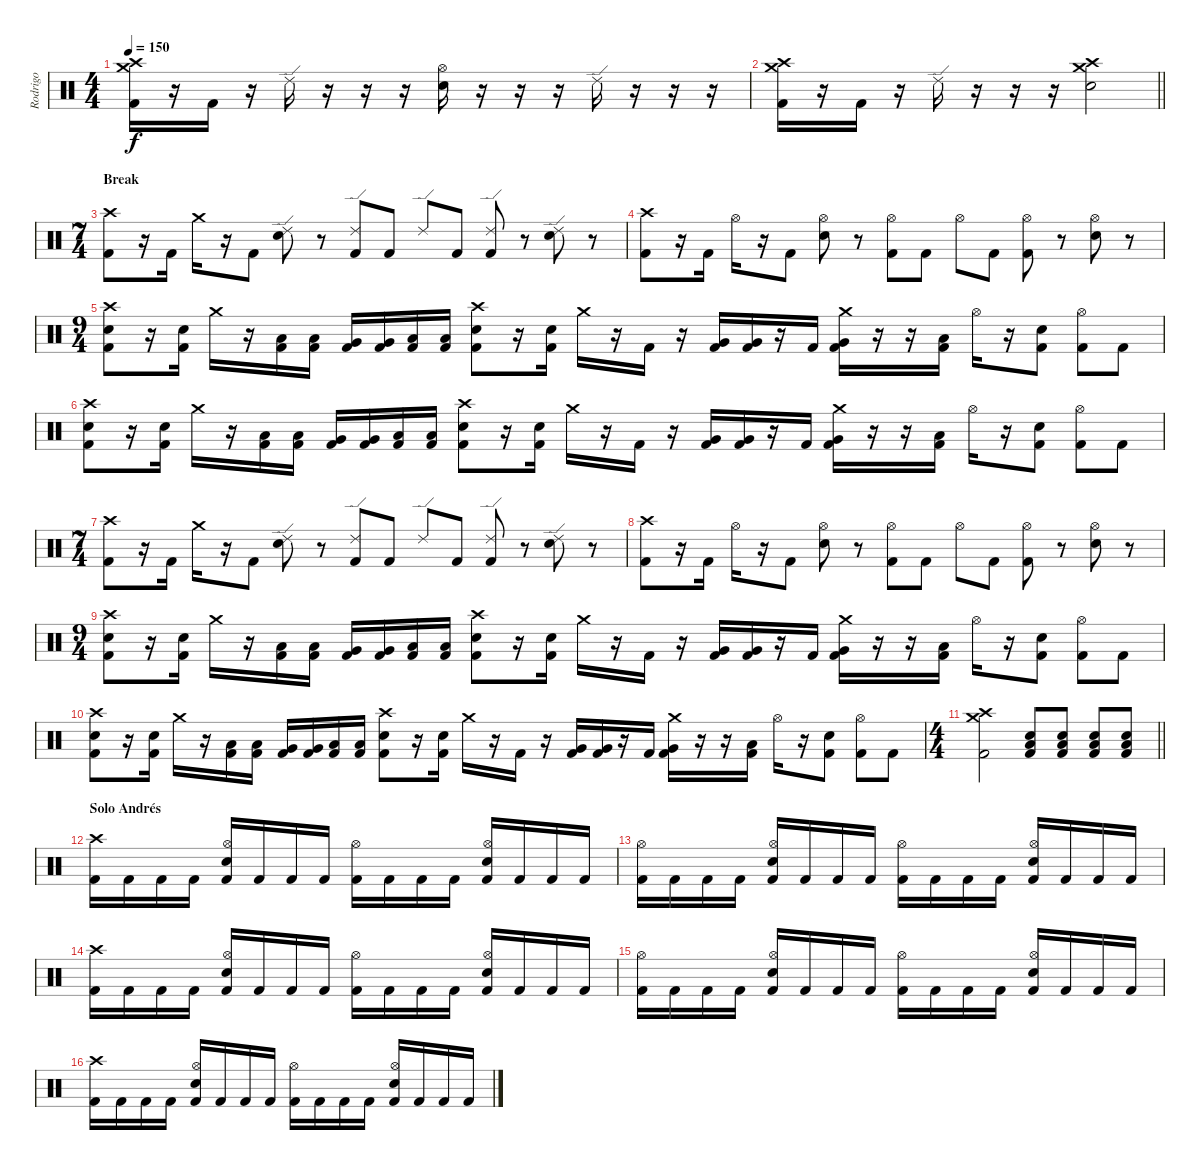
\track ("Rodrigo" "Rodrigo") {instrument percussion}
\staff {score}
\articulation defaults
\ts (4 4)
\tempo 150
\clef neutral
\ks c
("Crash high (hit)" "Crash medium (hit)" "Kick (hit) 2").16{dy f} r.16 "Kick (hit) 2".16 r.16 "Ride (edge) 2".16 r.16 r.16 r.16 ("Hi-Hat (open)" "Electric Snare (hit)").16 r.16 r.16 r.16 "Ride (edge) 2".16 r.16 r.16 r.16 |
\barLineRight lightlight
("Crash high (hit)" "Crash medium (hit)" "Kick (hit) 2").16 r.16 "Kick (hit) 2".16 r.16 "Ride (edge) 2".16 r.16 r.16 r.16 ("Crash high (hit)" "Crash medium (hit)" "Electric Snare (hit)").2 |
\ts (7 4)
\section ("" "Break")
("Crash high (hit)" "Kick (hit) 2").8 r.16 "Kick (hit) 2".16 "Crash medium (hit)".16 r.16 "Kick (hit) 2".8 ("Ride (edge) 2" "Electric Snare (hit)").8 r.8 ("Ride (edge) 2" "Kick (hit) 2").8 "Kick (hit) 2".8 "Ride (edge) 2".8 "Kick (hit) 2".8 ("Ride (edge) 2" "Kick (hit) 2").8 r.8 ("Ride (edge) 2" "Electric Snare (hit)").8 r.8 |
("Crash high (hit)" "Kick (hit) 2").8 r.16 "Kick (hit) 2".16 "Hi-Hat (open)".16 r.16 "Kick (hit) 2".8 ("Hi-Hat (open)" "Electric Snare (hit)").8 r.8 ("Hi-Hat (open)" "Kick (hit) 2").8 "Kick (hit) 2".8 "Hi-Hat (open)".8 "Kick (hit) 2".8 ("Hi-Hat (open)" "Kick (hit) 2").8 r.8 ("Hi-Hat (open)" "Electric Snare (hit)").8 r.8 |
\ts (9 4)
("Crash high (hit)" "Electric Snare (hit)" "Kick (hit) 2").8 r.16 ("Electric Snare (hit)" "Kick (hit) 2").16 "Crash medium (hit)".16 r.16 ("Low Tom (hit)" "Kick (hit) 2").16 ("Low Tom (hit)" "Kick (hit) 2").16 ("Very Low Tom (hit)" "Kick (hit) 2").16 ("Very Low Tom (hit)" "Kick (hit) 2").16 ("Low Floor Tom (hit)" "Kick (hit) 2").16 ("Low Floor Tom (hit)" "Kick (hit) 2").16 ("Crash high (hit)" "Electric Snare (hit)" "Kick (hit) 2").8 r.16 ("Electric Snare (hit)" "Kick (hit) 2").16 "Crash medium (hit)".16 r.16 "Kick (hit) 2".16 r.16 ("Very Low Tom (hit)" "Kick (hit) 2").16 ("Very Low Tom (hit)" "Kick (hit) 2").16 r.16 "Kick (hit) 2".16 ("Crash medium (hit)" "Very Low Tom (hit)" "Kick (hit) 2").16 r.16 r.16 ("Low Floor Tom (hit)" "Kick (hit) 2").16 "Hi-Hat (open)".16 r.16 ("Electric Snare (hit)" "Kick (hit) 2").8 ("Hi-Hat (open)" "Kick (hit) 2").8 "Kick (hit) 2".8 |
("Crash high (hit)" "Electric Snare (hit)" "Kick (hit) 2").8 r.16 ("Electric Snare (hit)" "Kick (hit) 2").16 "Crash medium (hit)".16 r.16 ("Low Tom (hit)" "Kick (hit) 2").16 ("Low Tom (hit)" "Kick (hit) 2").16 ("Very Low Tom (hit)" "Kick (hit) 2").16 ("Very Low Tom (hit)" "Kick (hit) 2").16 ("Low Floor Tom (hit)" "Kick (hit) 2").16 ("Low Floor Tom (hit)" "Kick (hit) 2").16 ("Crash high (hit)" "Electric Snare (hit)" "Kick (hit) 2").8 r.16 ("Electric Snare (hit)" "Kick (hit) 2").16 "Crash medium (hit)".16 r.16 "Kick (hit) 2".16 r.16 ("Very Low Tom (hit)" "Kick (hit) 2").16 ("Very Low Tom (hit)" "Kick (hit) 2").16 r.16 "Kick (hit) 2".16 ("Crash medium (hit)" "Very Low Tom (hit)" "Kick (hit) 2").16 r.16 r.16 ("Low Floor Tom (hit)" "Kick (hit) 2").16 "Hi-Hat (open)".16 r.16 ("Electric Snare (hit)" "Kick (hit) 2").8 ("Hi-Hat (open)" "Kick (hit) 2").8 "Kick (hit) 2".8 |
\ts (7 4)
("Crash high (hit)" "Kick (hit) 2").8 r.16 "Kick (hit) 2".16 "Crash medium (hit)".16 r.16 "Kick (hit) 2".8 ("Ride (edge) 2" "Electric Snare (hit)").8 r.8 ("Ride (edge) 2" "Kick (hit) 2").8 "Kick (hit) 2".8 "Ride (edge) 2".8 "Kick (hit) 2".8 ("Ride (edge) 2" "Kick (hit) 2").8 r.8 ("Ride (edge) 2" "Electric Snare (hit)").8 r.8 |
("Crash high (hit)" "Kick (hit) 2").8 r.16 "Kick (hit) 2".16 "Hi-Hat (open)".16 r.16 "Kick (hit) 2".8 ("Hi-Hat (open)" "Electric Snare (hit)").8 r.8 ("Hi-Hat (open)" "Kick (hit) 2").8 "Kick (hit) 2".8 "Hi-Hat (open)".8 "Kick (hit) 2".8 ("Hi-Hat (open)" "Kick (hit) 2").8 r.8 ("Hi-Hat (open)" "Electric Snare (hit)").8 r.8 |
\ts (9 4)
("Crash high (hit)" "Electric Snare (hit)" "Kick (hit) 2").8 r.16 ("Electric Snare (hit)" "Kick (hit) 2").16 "Crash medium (hit)".16 r.16 ("Low Tom (hit)" "Kick (hit) 2").16 ("Low Tom (hit)" "Kick (hit) 2").16 ("Very Low Tom (hit)" "Kick (hit) 2").16 ("Very Low Tom (hit)" "Kick (hit) 2").16 ("Low Floor Tom (hit)" "Kick (hit) 2").16 ("Low Floor Tom (hit)" "Kick (hit) 2").16 ("Crash high (hit)" "Electric Snare (hit)" "Kick (hit) 2").8 r.16 ("Electric Snare (hit)" "Kick (hit) 2").16 "Crash medium (hit)".16 r.16 "Kick (hit) 2".16 r.16 ("Very Low Tom (hit)" "Kick (hit) 2").16 ("Very Low Tom (hit)" "Kick (hit) 2").16 r.16 "Kick (hit) 2".16 ("Crash medium (hit)" "Very Low Tom (hit)" "Kick (hit) 2").16 r.16 r.16 ("Low Floor Tom (hit)" "Kick (hit) 2").16 "Hi-Hat (open)".16 r.16 ("Electric Snare (hit)" "Kick (hit) 2").8 ("Hi-Hat (open)" "Kick (hit) 2").8 "Kick (hit) 2".8 |
("Crash high (hit)" "Electric Snare (hit)" "Kick (hit) 2").8 r.16 ("Electric Snare (hit)" "Kick (hit) 2").16 "Crash medium (hit)".16 r.16 ("Low Tom (hit)" "Kick (hit) 2").16 ("Low Tom (hit)" "Kick (hit) 2").16 ("Very Low Tom (hit)" "Kick (hit) 2").16 ("Very Low Tom (hit)" "Kick (hit) 2").16 ("Low Floor Tom (hit)" "Kick (hit) 2").16 ("Low Floor Tom (hit)" "Kick (hit) 2").16 ("Crash high (hit)" "Electric Snare (hit)" "Kick (hit) 2").8 r.16 ("Electric Snare (hit)" "Kick (hit) 2").16 "Crash medium (hit)".16 r.16 "Kick (hit) 2".16 r.16 ("Very Low Tom (hit)" "Kick (hit) 2").16 ("Very Low Tom (hit)" "Kick (hit) 2").16 r.16 "Kick (hit) 2".16 ("Crash medium (hit)" "Very Low Tom (hit)" "Kick (hit) 2").16 r.16 r.16 ("Low Floor Tom (hit)" "Kick (hit) 2").16 "Hi-Hat (open)".16 r.16 ("Electric Snare (hit)" "Kick (hit) 2").8 ("Hi-Hat (open)" "Kick (hit) 2").8 "Kick (hit) 2".8 |
\ts (4 4)
\barLineRight lightlight
("Crash high (hit)" "Crash medium (hit)" "Kick (hit) 2").2 ("Low Floor Tom (hit)" "Electric Snare (hit)" "Kick (hit) 2").8 ("Low Floor Tom (hit)" "Electric Snare (hit)" "Kick (hit) 2").8 ("Low Floor Tom (hit)" "Electric Snare (hit)" "Kick (hit) 2").8 ("Low Floor Tom (hit)" "Electric Snare (hit)" "Kick (hit) 2").8 |
\section ("" "Solo Andrés")
("Crash high (hit)" "Kick (hit) 2").16 "Kick (hit) 2".16 "Kick (hit) 2".16 "Kick (hit) 2".16 ("Hi-Hat (open)" "Electric Snare (hit)" "Kick (hit) 2").16 "Kick (hit) 2".16 "Kick (hit) 2".16 "Kick (hit) 2".16 ("Hi-Hat (open)" "Kick (hit) 2").16 "Kick (hit) 2".16 "Kick (hit) 2".16 "Kick (hit) 2".16 ("Hi-Hat (open)" "Electric Snare (hit)" "Kick (hit) 2").16 "Kick (hit) 2".16 "Kick (hit) 2".16 "Kick (hit) 2".16 |
("Hi-Hat (open)" "Kick (hit) 2").16 "Kick (hit) 2".16 "Kick (hit) 2".16 "Kick (hit) 2".16 ("Hi-Hat (open)" "Electric Snare (hit)" "Kick (hit) 2").16 "Kick (hit) 2".16 "Kick (hit) 2".16 "Kick (hit) 2".16 ("Hi-Hat (open)" "Kick (hit) 2").16 "Kick (hit) 2".16 "Kick (hit) 2".16 "Kick (hit) 2".16 ("Hi-Hat (open)" "Electric Snare (hit)" "Kick (hit) 2").16 "Kick (hit) 2".16 "Kick (hit) 2".16 "Kick (hit) 2".16 |
("Crash high (hit)" "Kick (hit) 2").16 "Kick (hit) 2".16 "Kick (hit) 2".16 "Kick (hit) 2".16 ("Hi-Hat (open)" "Electric Snare (hit)" "Kick (hit) 2").16 "Kick (hit) 2".16 "Kick (hit) 2".16 "Kick (hit) 2".16 ("Hi-Hat (open)" "Kick (hit) 2").16 "Kick (hit) 2".16 "Kick (hit) 2".16 "Kick (hit) 2".16 ("Hi-Hat (open)" "Electric Snare (hit)" "Kick (hit) 2").16 "Kick (hit) 2".16 "Kick (hit) 2".16 "Kick (hit) 2".16 |
("Hi-Hat (open)" "Kick (hit) 2").16 "Kick (hit) 2".16 "Kick (hit) 2".16 "Kick (hit) 2".16 ("Hi-Hat (open)" "Electric Snare (hit)" "Kick (hit) 2").16 "Kick (hit) 2".16 "Kick (hit) 2".16 "Kick (hit) 2".16 ("Hi-Hat (open)" "Kick (hit) 2").16 "Kick (hit) 2".16 "Kick (hit) 2".16 "Kick (hit) 2".16 ("Hi-Hat (open)" "Electric Snare (hit)" "Kick (hit) 2").16 "Kick (hit) 2".16 "Kick (hit) 2".16 "Kick (hit) 2".16 |
("Crash high (hit)" "Kick (hit) 2").16 "Kick (hit) 2".16 "Kick (hit) 2".16 "Kick (hit) 2".16 ("Hi-Hat (open)" "Electric Snare (hit)" "Kick (hit) 2").16 "Kick (hit) 2".16 "Kick (hit) 2".16 "Kick (hit) 2".16 ("Hi-Hat (open)" "Kick (hit) 2").16 "Kick (hit) 2".16 "Kick (hit) 2".16 "Kick (hit) 2".16 ("Hi-Hat (open)" "Electric Snare (hit)" "Kick (hit) 2").16 "Kick (hit) 2".16 "Kick (hit) 2".16 "Kick (hit) 2".16
